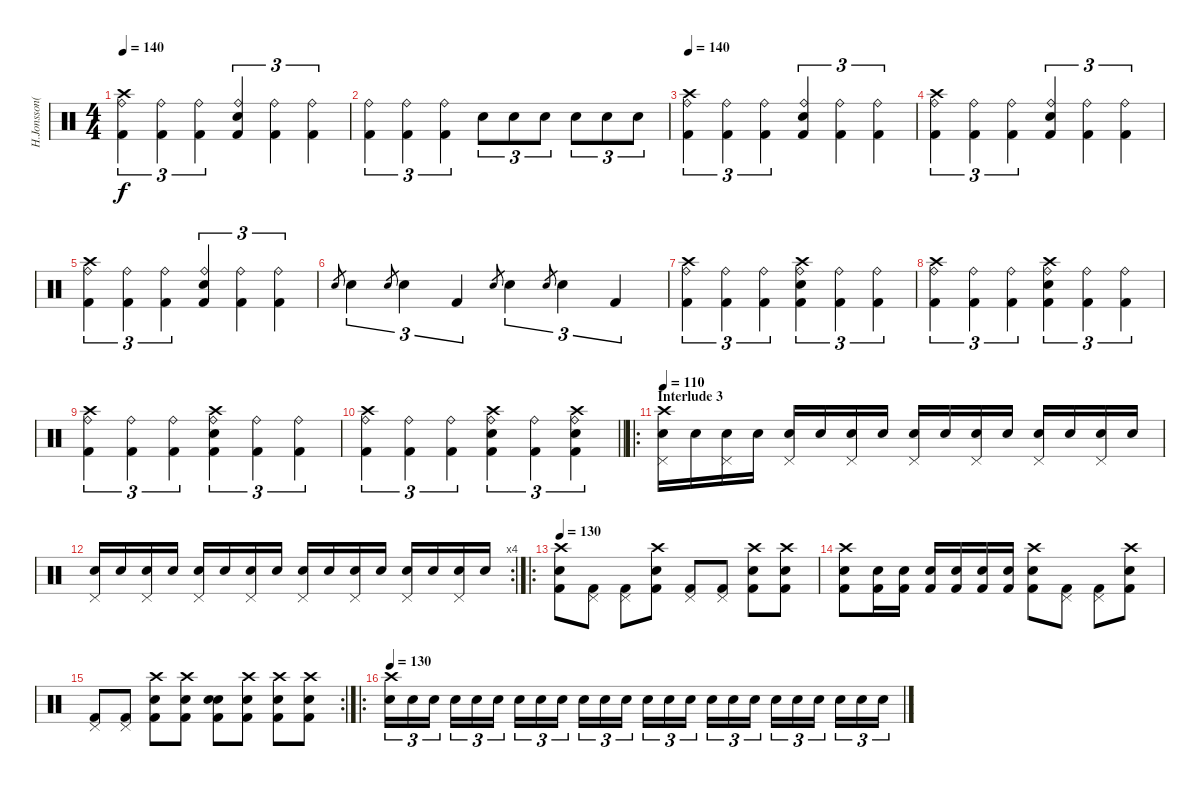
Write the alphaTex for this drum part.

\track ("H.Jonsson(Drums)" "H.Jonsson(") {instrument percussion}
\staff {score}
\articulation defaults
\ts (4 4)
\tempo 140
\clef neutral
\ks c
("Crash high (hit)" "Kick (hit) 2" "Ride (bell)").4{tu (3 2) dy f} ("Kick (hit) 2" "Ride (bell)").4{tu (3 2)} ("Kick (hit) 2" "Ride (bell)").4{tu (3 2)} ("Kick (hit) 2" "Snare (hit) 2" "Ride (bell)").4{tu (3 2)} ("Kick (hit) 2" "Ride (bell)").4{tu (3 2)} ("Kick (hit) 2" "Ride (bell)").4{tu (3 2)} |
("Kick (hit) 2" "Ride (bell)").4{tu (3 2)} ("Kick (hit) 2" "Ride (bell)").4{tu (3 2)} ("Kick (hit) 2" "Ride (bell)").4{tu (3 2)} "Snare (hit) 2".8{tu (3 2)} "Snare (hit) 2".8{tu (3 2)} "Snare (hit) 2".8{tu (3 2)} "Snare (hit) 2".8{tu (3 2)} "Snare (hit) 2".8{tu (3 2)} "Snare (hit) 2".8{tu (3 2)} |
\tempo 140
("Crash high (hit)" "Kick (hit) 2" "Ride (bell)").4{tu (3 2)} ("Kick (hit) 2" "Ride (bell)").4{tu (3 2)} ("Kick (hit) 2" "Ride (bell)").4{tu (3 2)} ("Kick (hit) 2" "Snare (hit) 2" "Ride (bell)").4{tu (3 2)} ("Kick (hit) 2" "Ride (bell)").4{tu (3 2)} ("Kick (hit) 2" "Ride (bell)").4{tu (3 2)} |
("Crash high (hit)" "Kick (hit) 2" "Ride (bell)").4{tu (3 2)} ("Kick (hit) 2" "Ride (bell)").4{tu (3 2)} ("Kick (hit) 2" "Ride (bell)").4{tu (3 2)} ("Kick (hit) 2" "Snare (hit) 2" "Ride (bell)").4{tu (3 2)} ("Kick (hit) 2" "Ride (bell)").4{tu (3 2)} ("Kick (hit) 2" "Ride (bell)").4{tu (3 2)} |
("Crash high (hit)" "Kick (hit) 2" "Ride (bell)").4{tu (3 2)} ("Kick (hit) 2" "Ride (bell)").4{tu (3 2)} ("Kick (hit) 2" "Ride (bell)").4{tu (3 2)} ("Kick (hit) 2" "Snare (hit) 2" "Ride (bell)").4{tu (3 2)} ("Kick (hit) 2" "Ride (bell)").4{tu (3 2)} ("Kick (hit) 2" "Ride (bell)").4{tu (3 2)} |
"Electric Snare (hit)".8{gr} "Electric Snare (hit)".4{tu (3 2)} "Electric Snare (hit)".8{gr} "Electric Snare (hit)".4{tu (3 2)} "Kick (hit) 2".4{tu (3 2)} "Electric Snare (hit)".8{gr} "Electric Snare (hit)".4{tu (3 2)} "Electric Snare (hit)".8{gr} "Electric Snare (hit)".4{tu (3 2)} "Kick (hit) 2".4{tu (3 2)} |
("Crash high (hit)" "Kick (hit) 2" "Ride (bell)").4{tu (3 2)} ("Kick (hit) 2" "Ride (bell)").4{tu (3 2)} ("Kick (hit) 2" "Ride (bell)").4{tu (3 2)} ("Crash high (hit)" "Kick (hit) 2" "Snare (hit) 2" "Ride (bell)").4{tu (3 2)} ("Kick (hit) 2" "Ride (bell)").4{tu (3 2)} ("Kick (hit) 2" "Ride (bell)").4{tu (3 2)} |
("Crash high (hit)" "Kick (hit) 2" "Ride (bell)").4{tu (3 2)} ("Kick (hit) 2" "Ride (bell)").4{tu (3 2)} ("Kick (hit) 2" "Ride (bell)").4{tu (3 2)} ("Crash high (hit)" "Kick (hit) 2" "Snare (hit) 2" "Ride (bell)").4{tu (3 2)} ("Kick (hit) 2" "Ride (bell)").4{tu (3 2)} ("Kick (hit) 2" "Ride (bell)").4{tu (3 2)} |
("Crash high (hit)" "Kick (hit) 2" "Ride (bell)").4{tu (3 2)} ("Kick (hit) 2" "Ride (bell)").4{tu (3 2)} ("Kick (hit) 2" "Ride (bell)").4{tu (3 2)} ("Crash high (hit)" "Kick (hit) 2" "Snare (hit) 2" "Ride (bell)").4{tu (3 2)} ("Kick (hit) 2" "Ride (bell)").4{tu (3 2)} ("Kick (hit) 2" "Ride (bell)").4{tu (3 2)} |
\barLineRight lightlight
("Crash high (hit)" "Kick (hit) 2" "Ride (bell)").4{tu (3 2)} ("Kick (hit) 2" "Ride (bell)").4{tu (3 2)} ("Kick (hit) 2" "Ride (bell)").4{tu (3 2)} ("Crash high (hit)" "Kick (hit) 2" "Snare (hit) 2" "Ride (bell)").4{tu (3 2)} ("Kick (hit) 2" "Ride (bell)").4{tu (3 2)} ("Crash high (hit)" "Kick (hit) 2" "Ride (bell)" "Snare (hit) 2").4{tu (3 2)} |
\ro
\section ("" "Interlude 3")
\tempo 110
("Crash high (hit)" "Pedal Hi-Hat (hit)" "Snare (hit) 2").16 "Electric Snare (hit)".16 ("Pedal Hi-Hat (hit)" "Snare (hit) 2").16 "Electric Snare (hit)".16 ("Pedal Hi-Hat (hit)" "Snare (hit) 2").16 "Electric Snare (hit)".16 ("Pedal Hi-Hat (hit)" "Snare (hit) 2").16 "Electric Snare (hit)".16 ("Pedal Hi-Hat (hit)" "Snare (hit) 2").16 "Electric Snare (hit)".16 ("Pedal Hi-Hat (hit)" "Snare (hit) 2").16 "Electric Snare (hit)".16 ("Pedal Hi-Hat (hit)" "Snare (hit) 2").16 "Electric Snare (hit)".16 ("Pedal Hi-Hat (hit)" "Snare (hit) 2").16 "Electric Snare (hit)".16 |
\rc 4
("Pedal Hi-Hat (hit)" "Snare (hit) 2").16 "Electric Snare (hit)".16 ("Pedal Hi-Hat (hit)" "Snare (hit) 2").16 "Electric Snare (hit)".16 ("Pedal Hi-Hat (hit)" "Snare (hit) 2").16 "Electric Snare (hit)".16 ("Pedal Hi-Hat (hit)" "Snare (hit) 2").16 "Electric Snare (hit)".16 ("Pedal Hi-Hat (hit)" "Snare (hit) 2").16 "Electric Snare (hit)".16 ("Pedal Hi-Hat (hit)" "Snare (hit) 2").16 "Electric Snare (hit)".16 ("Pedal Hi-Hat (hit)" "Snare (hit) 2").16 "Electric Snare (hit)".16 ("Pedal Hi-Hat (hit)" "Snare (hit) 2").16 "Electric Snare (hit)".16 |
\ro
\tempo 130
("Crash high (hit)" "Snare (hit) 2" "Kick (hit) 2").8 ("Pedal Hi-Hat (hit)" "Kick (hit) 2").8 ("Pedal Hi-Hat (hit)" "Kick (hit) 2").8 ("Crash high (hit)" "Snare (hit) 2" "Kick (hit) 2").8 ("Pedal Hi-Hat (hit)" "Kick (hit) 2").8 ("Pedal Hi-Hat (hit)" "Kick (hit) 2").8 ("Crash high (hit)" "Snare (hit) 2" "Kick (hit) 2").8 ("Crash high (hit)" "Snare (hit) 2" "Kick (hit) 2").8 |
("Crash high (hit)" "Snare (hit) 2" "Kick (hit) 2").8 ("Electric Snare (hit)" "Kick (hit) 2").16 ("Snare (hit) 2" "Kick (hit) 2").16 ("Electric Snare (hit)" "Kick (hit) 2").16 ("Snare (hit) 2" "Kick (hit) 2").16 ("Electric Snare (hit)" "Kick (hit) 2").16 ("Snare (hit) 2" "Kick (hit) 2").16 ("Crash high (hit)" "Snare (hit) 2" "Kick (hit) 2").8 ("Pedal Hi-Hat (hit)" "Kick (hit) 2").8 ("Pedal Hi-Hat (hit)" "Kick (hit) 2").8 ("Crash high (hit)" "Snare (hit) 2" "Kick (hit) 2").8 |
\rc 2
("Pedal Hi-Hat (hit)" "Kick (hit) 2").8 ("Pedal Hi-Hat (hit)" "Kick (hit) 2").8 ("Crash high (hit)" "Snare (hit) 2" "Kick (hit) 2").8 ("Crash high (hit)" "Snare (hit) 2" "Kick (hit) 2").8 ("Snare (hit)" "Snare (hit) 2" "Kick (hit) 2").8 ("Crash high (hit)" "Snare (hit) 2" "Kick (hit) 2").8 ("Crash high (hit)" "Snare (hit) 2" "Kick (hit) 2").8 ("Crash high (hit)" "Snare (hit) 2" "Kick (hit) 2").8 |
\ro
\tempo 130
("Crash high (hit)" "Electric Snare (hit)").16{tu (3 2)} "Snare (hit) 2".16{tu (3 2)} "Electric Snare (hit)".16{tu (3 2) beam splitsecondary} "Snare (hit) 2".16{tu (3 2)} "Electric Snare (hit)".16{tu (3 2)} "Snare (hit) 2".16{tu (3 2)} "Electric Snare (hit)".16{tu (3 2)} "Snare (hit) 2".16{tu (3 2)} "Electric Snare (hit)".16{tu (3 2) beam splitsecondary} "Snare (hit) 2".16{tu (3 2)} "Electric Snare (hit)".16{tu (3 2)} "Snare (hit) 2".16{tu (3 2)} "Electric Snare (hit)".16{tu (3 2)} "Snare (hit) 2".16{tu (3 2)} "Electric Snare (hit)".16{tu (3 2) beam splitsecondary} "Snare (hit) 2".16{tu (3 2)} "Electric Snare (hit)".16{tu (3 2)} "Snare (hit) 2".16{tu (3 2)} "Electric Snare (hit)".16{tu (3 2)} "Snare (hit) 2".16{tu (3 2)} "Electric Snare (hit)".16{tu (3 2) beam splitsecondary} "Snare (hit) 2".16{tu (3 2)} "Electric Snare (hit)".16{tu (3 2)} "Snare (hit) 2".16{tu (3 2)}
